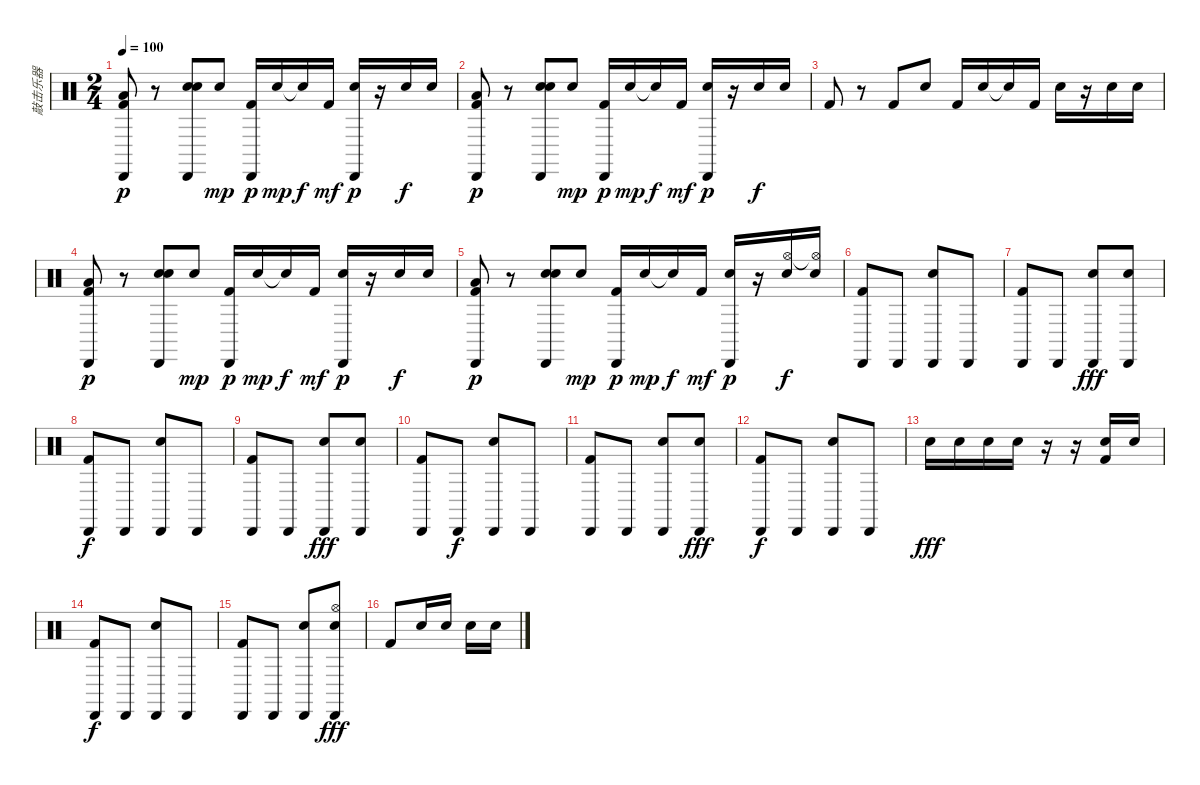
\track ("敲击乐器" "敲击乐器") {instrument percussion}
\staff {score}
\articulation defaults
\ts (2 4)
\tempo 100
\clef neutral
\ks c
("Kick (hit) 2" "Low Floor Tom (hit)" "Cabasa (hit)").8{dy p} r.8 ("Snare (hit) 2" "Electric Snare (hit)" "Cabasa (hit)").8 "Snare (hit) 2".8{dy mp} ("Kick (hit) 2" "Cabasa (hit)").16{dy p} "Snare (hit) 2".16{dy mp} "Snare (hit) 2"{t}.16{dy f} "Kick (hit) 2".16{dy mf} ("Snare (hit) 2" "Cabasa (hit)").16{dy p} r.16 "Electric Snare (hit)".16{dy f} "Snare (hit) 2".16 |
("Kick (hit) 2" "Low Floor Tom (hit)" "Cabasa (hit)").8{dy p} r.8 ("Snare (hit) 2" "Electric Snare (hit)" "Cabasa (hit)").8 "Snare (hit) 2".8{dy mp} ("Kick (hit) 2" "Cabasa (hit)").16{dy p} "Snare (hit) 2".16{dy mp} "Snare (hit) 2"{t}.16{dy f} "Kick (hit) 2".16{dy mf} ("Snare (hit) 2" "Cabasa (hit)").16{dy p} r.16 "Electric Snare (hit)".16{dy f} "Snare (hit) 2".16 |
"Kick (hit) 2".8 r.8 "Kick (hit) 2".8 "Snare (hit) 2".8 "Kick (hit) 2".16 "Snare (hit) 2".16 "Snare (hit) 2"{t}.16 "Kick (hit) 2".16 "Snare (hit) 2".16 r.16 "Electric Snare (hit)".16 "Snare (hit) 2".16 |
("Kick (hit) 2" "Low Floor Tom (hit)" "Cabasa (hit)").8{dy p} r.8 ("Snare (hit) 2" "Electric Snare (hit)" "Cabasa (hit)").8 "Snare (hit) 2".8{dy mp} ("Kick (hit) 2" "Cabasa (hit)").16{dy p} "Snare (hit) 2".16{dy mp} "Snare (hit) 2"{t}.16{dy f} "Kick (hit) 2".16{dy mf} ("Snare (hit) 2" "Cabasa (hit)").16{dy p} r.16 "Electric Snare (hit)".16{dy f} "Snare (hit) 2".16 |
("Kick (hit) 2" "Low Floor Tom (hit)" "Cabasa (hit)").8{dy p} r.8 ("Snare (hit) 2" "Electric Snare (hit)" "Cabasa (hit)").8 "Snare (hit) 2".8{dy mp} ("Kick (hit) 2" "Cabasa (hit)").16{dy p} "Snare (hit) 2".16{dy mp} "Snare (hit) 2"{t}.16{dy f} "Kick (hit) 2".16{dy mf} ("Snare (hit) 2" "Cabasa (hit)").16{dy p} r.16 ("Electric Snare (hit)" "Hi-Hat (open)").16{dy f} ("Snare (hit) 2" "Hi-Hat (open)"{t}).16 |
("Cabasa (hit)" "Kick (hit) 2").8 "Cabasa (hit)".8 ("Cabasa (hit)" "Snare (hit) 2").8 "Cabasa (hit)".8 |
("Cabasa (hit)" "Kick (hit) 2").8 "Cabasa (hit)".8 ("Cabasa (hit)" "Snare (hit) 2").8{dy fff} ("Cabasa (hit)" "Electric Snare (hit)").8 |
("Cabasa (hit)" "Kick (hit) 2").8{dy f} "Cabasa (hit)".8 ("Cabasa (hit)" "Snare (hit) 2").8 "Cabasa (hit)".8 |
("Cabasa (hit)" "Kick (hit) 2").8 "Cabasa (hit)".8 ("Cabasa (hit)" "Snare (hit) 2").8{dy fff} ("Cabasa (hit)" "Electric Snare (hit)").8 |
("Cabasa (hit)" "Kick (hit) 2").8 "Cabasa (hit)".8{dy f} ("Cabasa (hit)" "Snare (hit) 2").8 "Cabasa (hit)".8 |
("Cabasa (hit)" "Kick (hit) 2").8 "Cabasa (hit)".8 ("Cabasa (hit)" "Snare (hit) 2").8 ("Cabasa (hit)" "Electric Snare (hit)").8{dy fff} |
("Cabasa (hit)" "Kick (hit) 2").8{dy f} "Cabasa (hit)".8 ("Cabasa (hit)" "Snare (hit) 2").8 "Cabasa (hit)".8 |
"Snare (hit) 2".16{dy fff} "Snare (hit) 2".16 "Snare (hit) 2".16 "Snare (hit) 2".16 r.16 r.16 ("Snare (hit) 2" "Kick (hit) 2").16 "Snare (hit) 2".16 |
("Cabasa (hit)" "Kick (hit) 2").8{dy f} "Cabasa (hit)".8 ("Cabasa (hit)" "Snare (hit) 2").8 "Cabasa (hit)".8 |
("Cabasa (hit)" "Kick (hit) 2").8 "Cabasa (hit)".8 ("Cabasa (hit)" "Snare (hit) 2").8 ("Cabasa (hit)" "Electric Snare (hit)" "Hi-Hat (open)").8{dy fff} |
"Kick (hit) 2".8 "Snare (hit) 2".16 "Electric Snare (hit)".16 "Snare (hit) 2".16 "Snare (hit) 2".16
